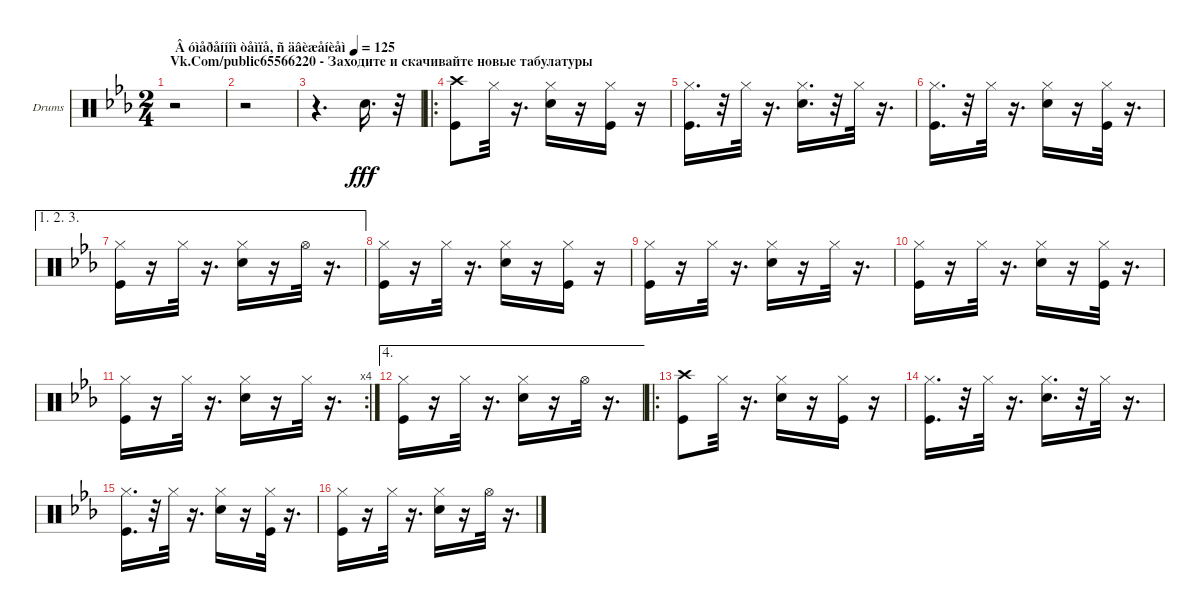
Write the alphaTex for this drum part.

\bracketExtendMode groupsimilarinstruments
\firstSystemTrackNameOrientation horizontal
\otherSystemsTrackNameOrientation horizontal
\track ("Ударные" "Drums") {instrument percussion}
\staff {score}
\articulation defaults
\ts (2 4)
\beaming (8 2 2)
\section ("" "Vk.Com/public65566220 - Заходите и скачивайте новые табулатуры")
\tempo (125 "Â óìåðåííîì òåìïå, ñ äâèæåíèåì")
\clef neutral
\ks cminor
r.2{dy fff} |
r.2 |
r.4{d} "Snare (hit) 2".16{d} r.32 |
\ro
("Kick (hit)" "Crash high (hit)").8 "Hi-Hat (closed)".32 r.16{d} ("Snare (hit) 2" "Hi-Hat (closed)").16 r.16 ("Kick (hit)" "Hi-Hat (closed)").16 r.16 |
("Kick (hit)" "Hi-Hat (closed)").16{d} r.32 "Hi-Hat (closed)".32 r.16{d} ("Snare (hit) 2" "Hi-Hat (closed)").16{d} r.32 "Hi-Hat (closed)".32 r.16{d} |
("Kick (hit)" "Hi-Hat (closed)").16{d} r.32 "Hi-Hat (closed)".32 r.16{d} ("Snare (hit) 2" "Hi-Hat (closed)").16 r.16 ("Kick (hit)" "Hi-Hat (closed)").32 r.16{d} |
\ae (1 2 3)
("Kick (hit)" "Hi-Hat (closed)").16 r.16 "Hi-Hat (closed)".32 r.16{d} ("Snare (hit) 2" "Hi-Hat (closed)").16 r.16 "Hi-Hat (open)".32 r.16{d} |
("Kick (hit)" "Hi-Hat (closed)").16 r.16 "Hi-Hat (closed)".32 r.16{d} ("Snare (hit) 2" "Hi-Hat (closed)").16 r.16 ("Kick (hit)" "Hi-Hat (closed)").16 r.16 |
("Kick (hit)" "Hi-Hat (closed)").16 r.16 "Hi-Hat (closed)".32 r.16{d} ("Snare (hit) 2" "Hi-Hat (closed)").16 r.16 "Hi-Hat (closed)".32 r.16{d} |
("Kick (hit)" "Hi-Hat (closed)").16 r.16 "Hi-Hat (closed)".32 r.16{d} ("Snare (hit) 2" "Hi-Hat (closed)").16 r.16 ("Kick (hit)" "Hi-Hat (closed)").32 r.16{d} |
\rc 4
("Kick (hit)" "Hi-Hat (closed)").16 r.16 "Hi-Hat (closed)".32 r.16{d} ("Snare (hit) 2" "Hi-Hat (closed)").16 r.16 "Hi-Hat (closed)".32 r.16{d} |
\ae 4
("Kick (hit)" "Hi-Hat (closed)").16 r.16 "Hi-Hat (closed)".32 r.16{d} ("Snare (hit) 2" "Hi-Hat (closed)").16 r.16 "Hi-Hat (open)".32 r.16{d} |
\ro
("Kick (hit)" "Crash high (hit)").8 "Hi-Hat (closed)".32 r.16{d} ("Snare (hit) 2" "Hi-Hat (closed)").16 r.16 ("Kick (hit)" "Hi-Hat (closed)").16 r.16 |
("Kick (hit)" "Hi-Hat (closed)").16{d} r.32 "Hi-Hat (closed)".32 r.16{d} ("Snare (hit) 2" "Hi-Hat (closed)").16{d} r.32 "Hi-Hat (closed)".32 r.16{d} |
("Kick (hit)" "Hi-Hat (closed)").16{d} r.32 "Hi-Hat (closed)".32 r.16{d} ("Snare (hit) 2" "Hi-Hat (closed)").16 r.16 ("Kick (hit)" "Hi-Hat (closed)").32 r.16{d} |
("Kick (hit)" "Hi-Hat (closed)").16 r.16 "Hi-Hat (closed)".32 r.16{d} ("Snare (hit) 2" "Hi-Hat (closed)").16 r.16 "Hi-Hat (open)".32 r.16{d}
